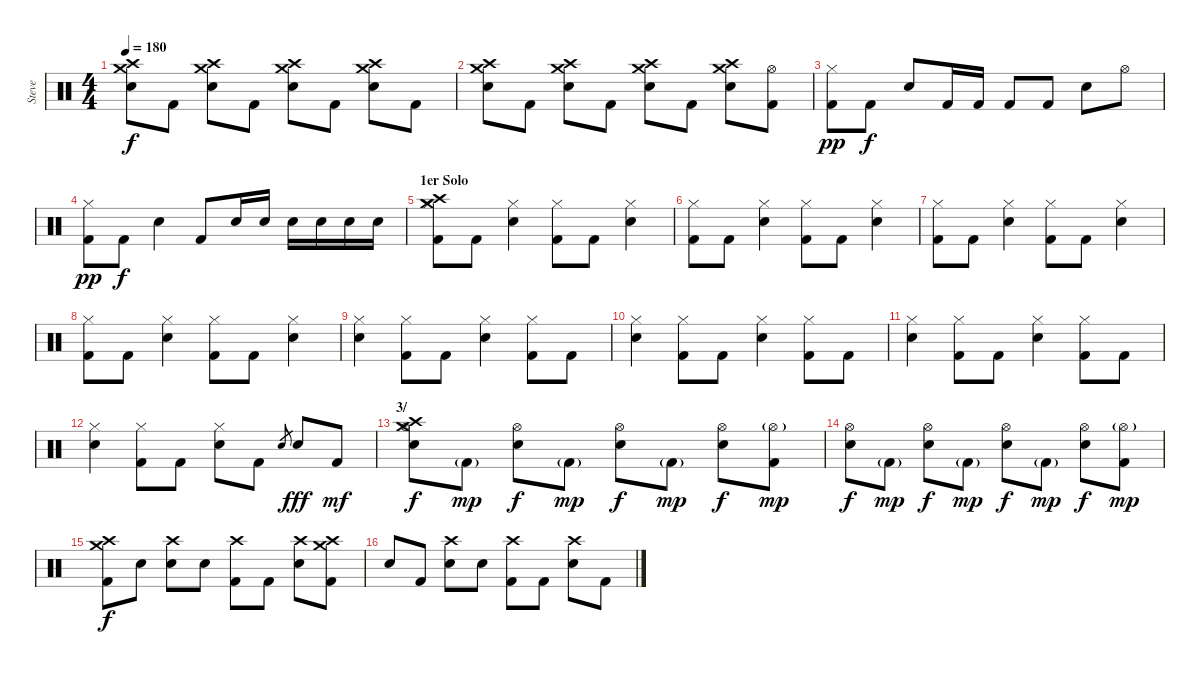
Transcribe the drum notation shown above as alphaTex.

\track ("Steve" "Steve") {instrument percussion}
\staff {score}
\articulation defaults
\ts (4 4)
\tempo 180
\clef neutral
\ks c
("Crash medium (hit)" "Crash high (hit)" "Electric Snare (hit)").8{dy f} "Kick (hit) 2".8 ("Crash medium (hit)" "Crash high (hit)" "Electric Snare (hit)").8 "Kick (hit) 2".8 ("Crash medium (hit)" "Crash high (hit)" "Electric Snare (hit)").8 "Kick (hit) 2".8 ("Crash high (hit)" "Crash medium (hit)" "Electric Snare (hit)").8 "Kick (hit) 2".8 |
("Crash medium (hit)" "Crash high (hit)" "Electric Snare (hit)").8 "Kick (hit) 2".8 ("Crash medium (hit)" "Crash high (hit)" "Electric Snare (hit)").8 "Kick (hit) 2".8 ("Crash medium (hit)" "Crash high (hit)" "Electric Snare (hit)").8 "Kick (hit) 2".8 ("Crash high (hit)" "Crash medium (hit)" "Electric Snare (hit)").8 ("Hi-Hat (open)" "Kick (hit) 2").8 |
("Hi-Hat (closed)" "Kick (hit) 2").8{dy pp} "Kick (hit) 2".8{dy f} "Electric Snare (hit)".8 "Kick (hit) 2".16 "Kick (hit) 2".16 "Kick (hit) 2".8 "Kick (hit) 2".8 "Electric Snare (hit)".8 "Hi-Hat (open)".8 |
("Hi-Hat (closed)" "Kick (hit) 2").8{dy pp} "Kick (hit) 2".8{dy f} "Electric Snare (hit)".4 "Kick (hit) 2".8 "Electric Snare (hit)".16 "Electric Snare (hit)".16 "Electric Snare (hit)".16 "Electric Snare (hit)".16 "Electric Snare (hit)".16 "Electric Snare (hit)".16 |
\section ("" "1er Solo")
("Crash high (hit)" "Crash medium (hit)" "Hi-Hat (closed)" "Kick (hit) 2").8 "Kick (hit) 2".8 ("Hi-Hat (closed)" "Electric Snare (hit)").4 ("Hi-Hat (closed)" "Kick (hit) 2").8 "Kick (hit) 2".8 ("Hi-Hat (closed)" "Electric Snare (hit)").4 |
("Hi-Hat (closed)" "Kick (hit) 2").8 "Kick (hit) 2".8 ("Hi-Hat (closed)" "Electric Snare (hit)").4 ("Hi-Hat (closed)" "Kick (hit) 2").8 "Kick (hit) 2".8 ("Hi-Hat (closed)" "Electric Snare (hit)").4 |
("Hi-Hat (closed)" "Kick (hit) 2").8 "Kick (hit) 2".8 ("Hi-Hat (closed)" "Electric Snare (hit)").4 ("Hi-Hat (closed)" "Kick (hit) 2").8 "Kick (hit) 2".8 ("Hi-Hat (closed)" "Electric Snare (hit)").4 |
("Hi-Hat (closed)" "Kick (hit) 2").8 "Kick (hit) 2".8 ("Hi-Hat (closed)" "Electric Snare (hit)").4 ("Hi-Hat (closed)" "Kick (hit) 2").8 "Kick (hit) 2".8 ("Hi-Hat (closed)" "Electric Snare (hit)").4 |
("Hi-Hat (closed)" "Electric Snare (hit)").4 ("Hi-Hat (closed)" "Kick (hit) 2").8 "Kick (hit) 2".8 ("Hi-Hat (closed)" "Electric Snare (hit)").4 ("Hi-Hat (closed)" "Kick (hit) 2").8 "Kick (hit) 2".8 |
("Hi-Hat (closed)" "Electric Snare (hit)").4 ("Hi-Hat (closed)" "Kick (hit) 2").8 "Kick (hit) 2".8 ("Hi-Hat (closed)" "Electric Snare (hit)").4 ("Hi-Hat (closed)" "Kick (hit) 2").8 "Kick (hit) 2".8 |
("Hi-Hat (closed)" "Electric Snare (hit)").4 ("Hi-Hat (closed)" "Kick (hit) 2").8 "Kick (hit) 2".8 ("Hi-Hat (closed)" "Electric Snare (hit)").4 ("Hi-Hat (closed)" "Kick (hit) 2").8 "Kick (hit) 2".8 |
("Hi-Hat (closed)" "Electric Snare (hit)").4 ("Hi-Hat (closed)" "Kick (hit) 2").8 "Kick (hit) 2".8 ("Hi-Hat (closed)" "Electric Snare (hit)").8 "Kick (hit) 2".8 "Electric Snare (hit)".8{gr} "Electric Snare (hit)".8{dy fff} "Kick (hit) 2".8{dy mf} |
\section ("" "3/")
("Crash medium (hit)" "Crash high (hit)" "Hi-Hat (open)" "Electric Snare (hit)").8{dy f} "Kick (hit) 2"{g}.8{dy mp} ("Hi-Hat (open)" "Electric Snare (hit)").8{dy f} "Kick (hit) 2"{g}.8{dy mp} ("Hi-Hat (open)" "Electric Snare (hit)").8{dy f} "Kick (hit) 2"{g}.8{dy mp} ("Hi-Hat (open)" "Electric Snare (hit)").8{dy f} ("Hi-Hat (open)"{g} "Kick (hit) 2").8{dy mp} |
("Hi-Hat (open)" "Electric Snare (hit)").8{dy f} "Kick (hit) 2"{g}.8{dy mp} ("Hi-Hat (open)" "Electric Snare (hit)").8{dy f} "Kick (hit) 2"{g}.8{dy mp} ("Hi-Hat (open)" "Electric Snare (hit)").8{dy f} "Kick (hit) 2"{g}.8{dy mp} ("Hi-Hat (open)" "Electric Snare (hit)").8{dy f} ("Hi-Hat (open)"{g} "Kick (hit) 2").8{dy mp} |
("Crash medium (hit)" "Crash high (hit)" "Kick (hit) 2").8{dy f} "Snare (hit)"{x}.8 ("Crash high (hit)" "Electric Snare (hit)").8 "Snare (hit)"{x}.8 ("Crash high (hit)" "Kick (hit) 2").8 "Kick (hit) 2".8 ("Crash high (hit)" "Electric Snare (hit)").8 ("Crash high (hit)" "Crash medium (hit)" "Kick (hit) 2").8 |
"Snare (hit)"{x}.8 "Kick (hit) 2".8 ("Crash high (hit)" "Electric Snare (hit)").8 "Snare (hit)"{x}.8 ("Crash high (hit)" "Kick (hit) 2").8 "Kick (hit) 2".8 ("Crash high (hit)" "Electric Snare (hit)").8 "Kick (hit) 2".8
